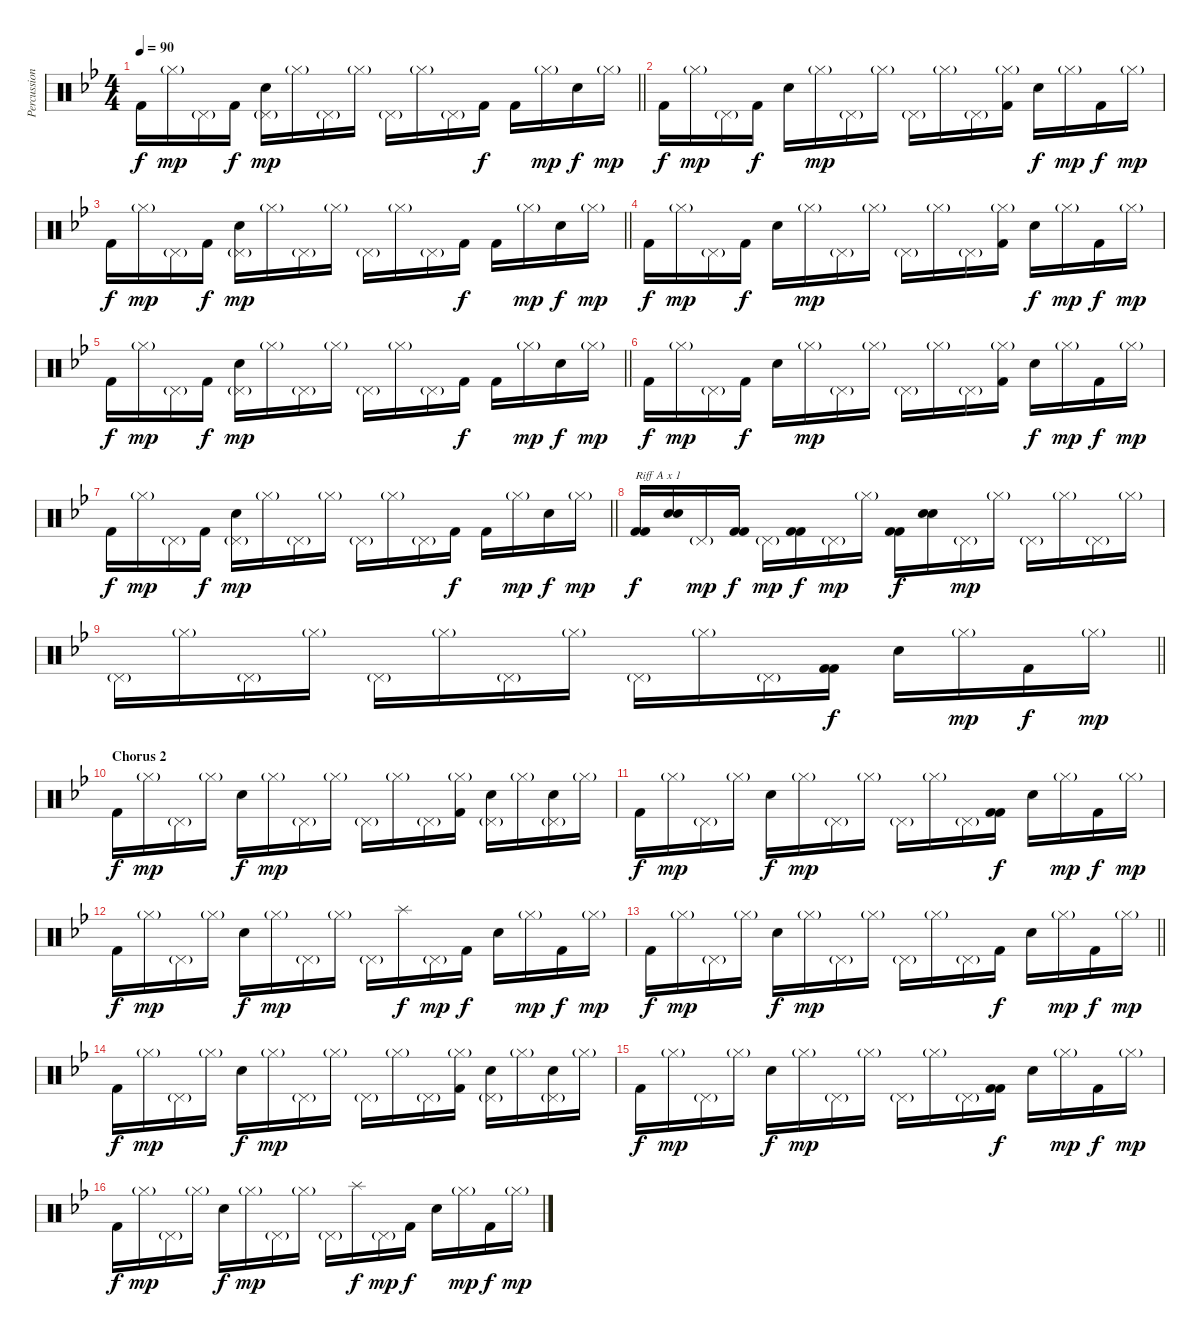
\track ("Percussion" "Percussion") {instrument percussion}
\staff {score}
\articulation defaults
\ts (4 4)
\tempo 90
\clef neutral
\barLineRight lightlight
\ks bb "Kick (hit) 2".16{dy f} "Hi-Hat (closed)"{g}.16{dy mp} "Pedal Hi-Hat (hit)"{g}.16 "Kick (hit) 2".16{dy f}
("Pedal Hi-Hat (hit)"{g} "Snare (hit) 2").16{dy mp} "Hi-Hat (closed)"{g}.16 "Pedal Hi-Hat (hit)"{g}.16 "Hi-Hat (closed)"{g}.16 "Pedal Hi-Hat (hit)"{g}.16 "Hi-Hat (closed)"{g}.16 "Pedal Hi-Hat (hit)"{g}.16 "Kick (hit) 2".16{dy f} "Kick (hit) 2".16 "Hi-Hat (closed)"{g}.16{dy mp} "Snare (hit) 2".16{dy f} "Hi-Hat (closed)"{g}.16{dy mp} |
"Kick (hit) 2".16{dy f} "Hi-Hat (closed)"{g}.16{dy mp} "Pedal Hi-Hat (hit)"{g}.16 "Kick (hit) 2".16{dy f} "Electric Snare (hit)".16 "Hi-Hat (closed)"{g}.16{dy mp} "Pedal Hi-Hat (hit)"{g}.16 "Hi-Hat (closed)"{g}.16 "Pedal Hi-Hat (hit)"{g}.16 "Hi-Hat (closed)"{g}.16 "Pedal Hi-Hat (hit)"{g}.16 ("Hi-Hat (closed)"{g} "Kick (hit) 2").16 "Snare (hit) 2".16{dy f} "Hi-Hat (closed)"{g}.16{dy mp} "Kick (hit) 2".16{dy f} "Hi-Hat (closed)"{g}.16{dy mp} |
\barLineRight lightlight "Kick (hit) 2".16{dy f} "Hi-Hat (closed)"{g}.16{dy mp} "Pedal Hi-Hat (hit)"{g}.16 "Kick (hit) 2".16{dy f}
("Pedal Hi-Hat (hit)"{g} "Snare (hit) 2").16{dy mp} "Hi-Hat (closed)"{g}.16 "Pedal Hi-Hat (hit)"{g}.16 "Hi-Hat (closed)"{g}.16 "Pedal Hi-Hat (hit)"{g}.16 "Hi-Hat (closed)"{g}.16 "Pedal Hi-Hat (hit)"{g}.16 "Kick (hit) 2".16{dy f} "Kick (hit) 2".16 "Hi-Hat (closed)"{g}.16{dy mp} "Snare (hit) 2".16{dy f} "Hi-Hat (closed)"{g}.16{dy mp} |
"Kick (hit) 2".16{dy f} "Hi-Hat (closed)"{g}.16{dy mp} "Pedal Hi-Hat (hit)"{g}.16 "Kick (hit) 2".16{dy f} "Electric Snare (hit)".16 "Hi-Hat (closed)"{g}.16{dy mp} "Pedal Hi-Hat (hit)"{g}.16 "Hi-Hat (closed)"{g}.16 "Pedal Hi-Hat (hit)"{g}.16 "Hi-Hat (closed)"{g}.16 "Pedal Hi-Hat (hit)"{g}.16 ("Hi-Hat (closed)"{g} "Kick (hit) 2").16 "Snare (hit) 2".16{dy f} "Hi-Hat (closed)"{g}.16{dy mp} "Kick (hit) 2".16{dy f} "Hi-Hat (closed)"{g}.16{dy mp} |
\barLineRight lightlight "Kick (hit) 2".16{dy f} "Hi-Hat (closed)"{g}.16{dy mp} "Pedal Hi-Hat (hit)"{g}.16 "Kick (hit) 2".16{dy f}
("Pedal Hi-Hat (hit)"{g} "Snare (hit) 2").16{dy mp} "Hi-Hat (closed)"{g}.16 "Pedal Hi-Hat (hit)"{g}.16 "Hi-Hat (closed)"{g}.16 "Pedal Hi-Hat (hit)"{g}.16 "Hi-Hat (closed)"{g}.16 "Pedal Hi-Hat (hit)"{g}.16 "Kick (hit) 2".16{dy f} "Kick (hit) 2".16 "Hi-Hat (closed)"{g}.16{dy mp} "Snare (hit) 2".16{dy f} "Hi-Hat (closed)"{g}.16{dy mp} |
"Kick (hit) 2".16{dy f} "Hi-Hat (closed)"{g}.16{dy mp} "Pedal Hi-Hat (hit)"{g}.16 "Kick (hit) 2".16{dy f} "Electric Snare (hit)".16 "Hi-Hat (closed)"{g}.16{dy mp} "Pedal Hi-Hat (hit)"{g}.16 "Hi-Hat (closed)"{g}.16 "Pedal Hi-Hat (hit)"{g}.16 "Hi-Hat (closed)"{g}.16 "Pedal Hi-Hat (hit)"{g}.16 ("Hi-Hat (closed)"{g} "Kick (hit) 2").16 "Snare (hit) 2".16{dy f} "Hi-Hat (closed)"{g}.16{dy mp} "Kick (hit) 2".16{dy f} "Hi-Hat (closed)"{g}.16{dy mp} |
\barLineRight lightlight "Kick (hit) 2".16{dy f} "Hi-Hat (closed)"{g}.16{dy mp} "Pedal Hi-Hat (hit)"{g}.16 "Kick (hit) 2".16{dy f}
("Pedal Hi-Hat (hit)"{g} "Snare (hit) 2").16{dy mp} "Hi-Hat (closed)"{g}.16 "Pedal Hi-Hat (hit)"{g}.16 "Hi-Hat (closed)"{g}.16 "Pedal Hi-Hat (hit)"{g}.16 "Hi-Hat (closed)"{g}.16 "Pedal Hi-Hat (hit)"{g}.16 "Kick (hit) 2".16{dy f} "Kick (hit) 2".16 "Hi-Hat (closed)"{g}.16{dy mp} "Snare (hit) 2".16{dy f} "Hi-Hat (closed)"{g}.16{dy mp} |
("Kick (hit) 2" "Kick (hit) 2").16{txt "Riff A x 1" dy f} ("Snare (hit) 2" "Electric Snare (hit)").16 "Pedal Hi-Hat (hit)"{g}.16{dy mp} ("Kick (hit) 2" "Kick (hit) 2").16{dy f} "Pedal Hi-Hat (hit)"{g}.16{dy mp} ("Kick (hit) 2" "Kick (hit) 2").16{dy f} "Pedal Hi-Hat (hit)"{g}.16{dy mp} "Hi-Hat (closed)"{g}.16 ("Kick (hit) 2" "Kick (hit) 2").16{dy f} ("Snare (hit) 2" "Electric Snare (hit)").16 "Pedal Hi-Hat (hit)"{g}.16{dy mp} "Hi-Hat (closed)"{g}.16 "Pedal Hi-Hat (hit)"{g}.16 "Hi-Hat (closed)"{g}.16 "Pedal Hi-Hat (hit)"{g}.16 "Hi-Hat (closed)"{g}.16 |
\barLineRight lightlight "Pedal Hi-Hat (hit)"{g}.16 "Hi-Hat (closed)"{g}.16 "Pedal Hi-Hat (hit)"{g}.16 "Hi-Hat (closed)"{g}.16 "Pedal Hi-Hat (hit)"{g}.16 "Hi-Hat (closed)"{g}.16 "Pedal Hi-Hat (hit)"{g}.16 "Hi-Hat (closed)"{g}.16 "Pedal Hi-Hat (hit)"{g}.16 "Hi-Hat (closed)"{g}.16 "Pedal Hi-Hat (hit)"{g}.16
("Kick (hit) 2" "Kick (hit) 2").16{dy f} "Snare (hit) 2".16 "Hi-Hat (closed)"{g}.16{dy mp} "Kick (hit) 2".16{dy f} "Hi-Hat (closed)"{g}.16{dy mp} |
\section ("" "Chorus 2")
"Kick (hit) 2".16{dy f} "Hi-Hat (closed)"{g}.16{dy mp} "Pedal Hi-Hat (hit)"{g}.16 "Hi-Hat (closed)"{g}.16 "Snare (hit) 2".16{dy f} "Hi-Hat (closed)"{g}.16{dy mp} "Pedal Hi-Hat (hit)"{g}.16 "Hi-Hat (closed)"{g}.16 "Pedal Hi-Hat (hit)"{g}.16 "Hi-Hat (closed)"{g}.16 "Pedal Hi-Hat (hit)"{g}.16 ("Hi-Hat (closed)"{g} "Kick (hit) 2").16 ("Pedal Hi-Hat (hit)"{g} "Snare (hit) 2").16 "Hi-Hat (closed)"{g}.16 ("Pedal Hi-Hat (hit)"{g} "Snare (hit) 2").16 "Hi-Hat (closed)"{g}.16 |
"Kick (hit) 2".16{dy f} "Hi-Hat (closed)"{g}.16{dy mp} "Pedal Hi-Hat (hit)"{g}.16 "Hi-Hat (closed)"{g}.16 "Snare (hit) 2".16{dy f} "Hi-Hat (closed)"{g}.16{dy mp} "Pedal Hi-Hat (hit)"{g}.16 "Hi-Hat (closed)"{g}.16 "Pedal Hi-Hat (hit)"{g}.16 "Hi-Hat (closed)"{g}.16 "Pedal Hi-Hat (hit)"{g}.16 ("Kick (hit) 2" "Kick (hit) 2").16{dy f} "Snare (hit) 2".16 "Hi-Hat (closed)"{g}.16{dy mp} "Kick (hit) 2".16{dy f} "Hi-Hat (closed)"{g}.16{dy mp} |
"Kick (hit) 2".16{dy f} "Hi-Hat (closed)"{g}.16{dy mp} "Pedal Hi-Hat (hit)"{g}.16 "Hi-Hat (closed)"{g}.16 "Snare (hit) 2".16{dy f} "Hi-Hat (closed)"{g}.16{dy mp} "Pedal Hi-Hat (hit)"{g}.16 "Hi-Hat (closed)"{g}.16 "Pedal Hi-Hat (hit)"{g}.16 "Splash (hit)".16{dy f} "Pedal Hi-Hat (hit)"{g}.16{dy mp} "Kick (hit) 2".16{dy f} "Snare (hit) 2".16 "Hi-Hat (closed)"{g}.16{dy mp} "Kick (hit) 2".16{dy f} "Hi-Hat (closed)"{g}.16{dy mp} |
\barLineRight lightlight "Kick (hit) 2".16{dy f} "Hi-Hat (closed)"{g}.16{dy mp} "Pedal Hi-Hat (hit)"{g}.16 "Hi-Hat (closed)"{g}.16 "Snare (hit) 2".16{dy f} "Hi-Hat (closed)"{g}.16{dy mp} "Pedal Hi-Hat (hit)"{g}.16 "Hi-Hat (closed)"{g}.16 "Pedal Hi-Hat (hit)"{g}.16 "Hi-Hat (closed)"{g}.16 "Pedal Hi-Hat (hit)"{g}.16 "Kick (hit) 2".16{dy f} "Snare (hit) 2".16 "Hi-Hat (closed)"{g}.16{dy mp} "Kick (hit) 2".16{dy f} "Hi-Hat (closed)"{g}.16{dy mp}
|
"Kick (hit) 2".16{dy f} "Hi-Hat (closed)"{g}.16{dy mp} "Pedal Hi-Hat (hit)"{g}.16 "Hi-Hat (closed)"{g}.16 "Snare (hit) 2".16{dy f} "Hi-Hat (closed)"{g}.16{dy mp} "Pedal Hi-Hat (hit)"{g}.16 "Hi-Hat (closed)"{g}.16 "Pedal Hi-Hat (hit)"{g}.16 "Hi-Hat (closed)"{g}.16 "Pedal Hi-Hat (hit)"{g}.16 ("Hi-Hat (closed)"{g} "Kick (hit) 2").16 ("Pedal Hi-Hat (hit)"{g} "Snare (hit) 2").16 "Hi-Hat (closed)"{g}.16 ("Pedal Hi-Hat (hit)"{g} "Snare (hit) 2").16 "Hi-Hat (closed)"{g}.16 |
"Kick (hit) 2".16{dy f} "Hi-Hat (closed)"{g}.16{dy mp} "Pedal Hi-Hat (hit)"{g}.16 "Hi-Hat (closed)"{g}.16 "Snare (hit) 2".16{dy f} "Hi-Hat (closed)"{g}.16{dy mp} "Pedal Hi-Hat (hit)"{g}.16 "Hi-Hat (closed)"{g}.16 "Pedal Hi-Hat (hit)"{g}.16 "Hi-Hat (closed)"{g}.16 "Pedal Hi-Hat (hit)"{g}.16 ("Kick (hit) 2" "Kick (hit) 2").16{dy f} "Snare (hit) 2".16 "Hi-Hat (closed)"{g}.16{dy mp} "Kick (hit) 2".16{dy f} "Hi-Hat (closed)"{g}.16{dy mp} |
"Kick (hit) 2".16{dy f} "Hi-Hat (closed)"{g}.16{dy mp} "Pedal Hi-Hat (hit)"{g}.16 "Hi-Hat (closed)"{g}.16 "Snare (hit) 2".16{dy f} "Hi-Hat (closed)"{g}.16{dy mp} "Pedal Hi-Hat (hit)"{g}.16 "Hi-Hat (closed)"{g}.16 "Pedal Hi-Hat (hit)"{g}.16 "Splash (hit)".16{dy f} "Pedal Hi-Hat (hit)"{g}.16{dy mp} "Kick (hit) 2".16{dy f} "Snare (hit) 2".16 "Hi-Hat (closed)"{g}.16{dy mp} "Kick (hit) 2".16{dy f} "Hi-Hat (closed)"{g}.16{dy mp}
